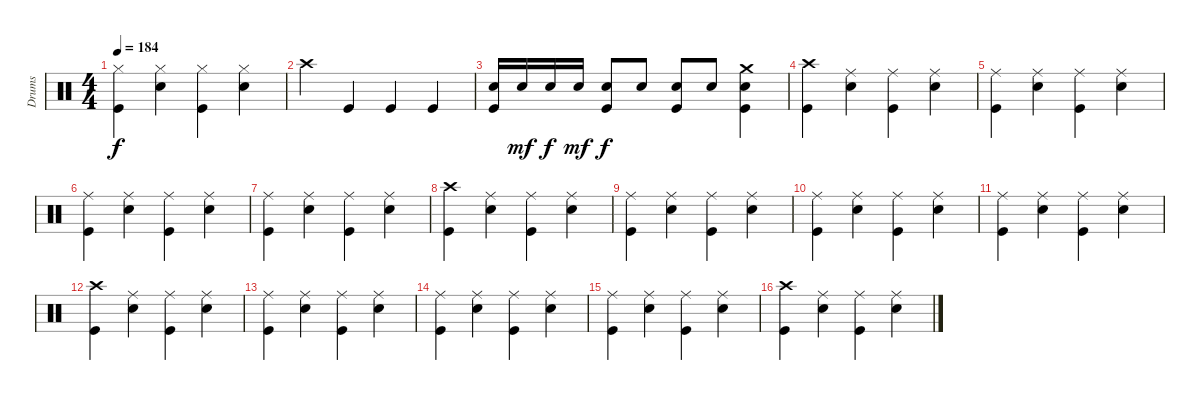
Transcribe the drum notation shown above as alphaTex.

\track ("Drums" "Drums") {instrument percussion}
\staff {score}
\articulation defaults
\ts (4 4)
\tempo 184
\clef neutral
\ks c
("Hi-Hat (closed)" "Kick (hit)").4{dy f} ("Hi-Hat (closed)" "Electric Snare (hit)").4 ("Hi-Hat (closed)" "Kick (hit)").4 ("Hi-Hat (closed)" "Electric Snare (hit)").4 |
"Crash high (hit)".4 "Kick (hit)".4 "Kick (hit)".4 "Kick (hit)".4 |
("Electric Snare (hit)" "Kick (hit)").16 "Electric Snare (hit)".16{dy mf} "Electric Snare (hit)".16{dy f} "Electric Snare (hit)".16{dy mf} ("Electric Snare (hit)" "Kick (hit)").8{dy f} "Electric Snare (hit)".8 ("Electric Snare (hit)" "Kick (hit)").8 "Electric Snare (hit)".8 ("Crash medium (hit)" "Electric Snare (hit)" "Kick (hit)").4 |
("Crash high (hit)" "Kick (hit)").4 ("Ride (middle)" "Electric Snare (hit)").4 ("Ride (middle)" "Kick (hit)").4 ("Ride (middle)" "Electric Snare (hit)").4 |
("Ride (middle)" "Kick (hit)").4 ("Ride (middle)" "Electric Snare (hit)").4 ("Ride (middle)" "Kick (hit)").4 ("Ride (middle)" "Electric Snare (hit)").4 |
("Ride (middle)" "Kick (hit)").4 ("Ride (middle)" "Electric Snare (hit)").4 ("Ride (middle)" "Kick (hit)").4 ("Ride (middle)" "Electric Snare (hit)").4 |
("Ride (middle)" "Kick (hit)").4 ("Ride (middle)" "Electric Snare (hit)").4 ("Ride (middle)" "Kick (hit)").4 ("Ride (middle)" "Electric Snare (hit)").4 |
("Crash high (hit)" "Kick (hit)").4 ("Ride (middle)" "Electric Snare (hit)").4 ("Ride (middle)" "Kick (hit)").4 ("Ride (middle)" "Electric Snare (hit)").4 |
("Ride (middle)" "Kick (hit)").4 ("Ride (middle)" "Electric Snare (hit)").4 ("Ride (middle)" "Kick (hit)").4 ("Ride (middle)" "Electric Snare (hit)").4 |
("Ride (middle)" "Kick (hit)").4 ("Ride (middle)" "Electric Snare (hit)").4 ("Ride (middle)" "Kick (hit)").4 ("Ride (middle)" "Electric Snare (hit)").4 |
("Ride (middle)" "Kick (hit)").4 ("Ride (middle)" "Electric Snare (hit)").4 ("Ride (middle)" "Kick (hit)").4 ("Ride (middle)" "Electric Snare (hit)").4 |
("Crash high (hit)" "Kick (hit)").4 ("Ride (middle)" "Electric Snare (hit)").4 ("Ride (middle)" "Kick (hit)").4 ("Ride (middle)" "Electric Snare (hit)").4 |
("Ride (middle)" "Kick (hit)").4 ("Ride (middle)" "Electric Snare (hit)").4 ("Ride (middle)" "Kick (hit)").4 ("Ride (middle)" "Electric Snare (hit)").4 |
("Ride (middle)" "Kick (hit)").4 ("Ride (middle)" "Electric Snare (hit)").4 ("Ride (middle)" "Kick (hit)").4 ("Ride (middle)" "Electric Snare (hit)").4 |
("Ride (middle)" "Kick (hit)").4 ("Ride (middle)" "Electric Snare (hit)").4 ("Ride (middle)" "Kick (hit)").4 ("Ride (middle)" "Electric Snare (hit)").4 |
("Crash high (hit)" "Kick (hit)").4 ("Ride (middle)" "Electric Snare (hit)").4 ("Ride (middle)" "Kick (hit)").4 ("Ride (middle)" "Electric Snare (hit)").4
